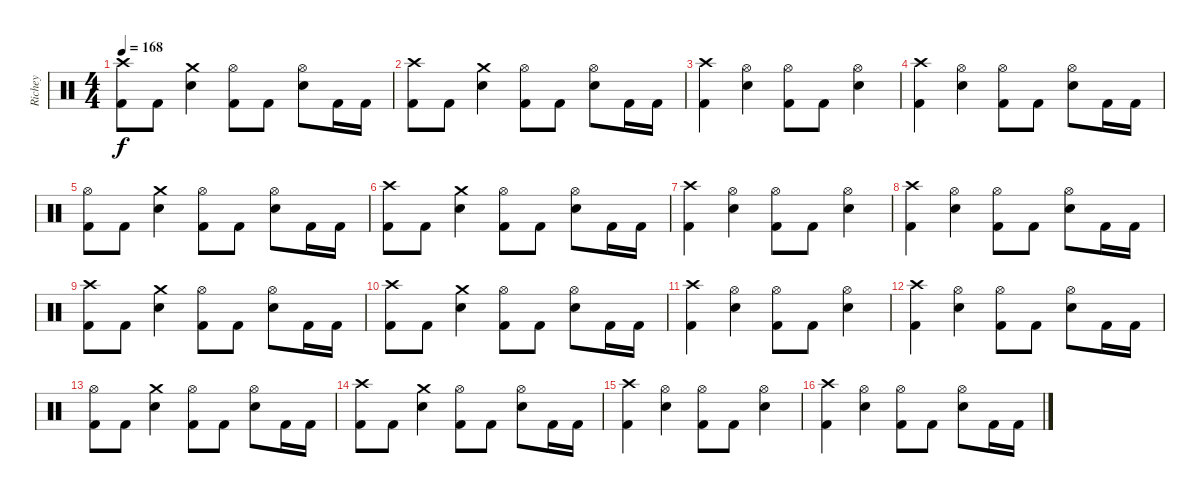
\track ("Richey" "Richey") {instrument percussion}
\staff {score}
\articulation defaults
\ts (4 4)
\tempo 168
\clef neutral
\ks c
("Crash high (hit)" "Kick (hit) 2").8{dy f} "Kick (hit) 2".8 ("Crash medium (hit)" "Snare (hit) 2").4 ("Hi-Hat (open)" "Kick (hit) 2").8 "Kick (hit) 2".8 ("Hi-Hat (open)" "Snare (hit) 2").8 "Kick (hit) 2".16 "Kick (hit) 2".16 |
("Crash high (hit)" "Kick (hit) 2").8 "Kick (hit) 2".8 ("Crash medium (hit)" "Snare (hit) 2").4 ("Hi-Hat (open)" "Kick (hit) 2").8 "Kick (hit) 2".8 ("Hi-Hat (open)" "Snare (hit) 2").8 "Kick (hit) 2".16 "Kick (hit) 2".16 |
("Crash high (hit)" "Kick (hit) 2").4 ("Hi-Hat (open)" "Snare (hit) 2").4 ("Hi-Hat (open)" "Kick (hit) 2").8 "Kick (hit) 2".8 ("Hi-Hat (open)" "Snare (hit) 2").4 |
("Crash high (hit)" "Kick (hit) 2").4 ("Hi-Hat (open)" "Snare (hit) 2").4 ("Hi-Hat (open)" "Kick (hit) 2").8 "Kick (hit) 2".8 ("Hi-Hat (open)" "Snare (hit) 2").8 "Kick (hit) 2".16 "Kick (hit) 2".16 |
("Hi-Hat (open)" "Kick (hit) 2").8 "Kick (hit) 2".8 ("Crash medium (hit)" "Snare (hit) 2").4 ("Hi-Hat (open)" "Kick (hit) 2").8 "Kick (hit) 2".8 ("Hi-Hat (open)" "Snare (hit) 2").8 "Kick (hit) 2".16 "Kick (hit) 2".16 |
("Crash high (hit)" "Kick (hit) 2").8 "Kick (hit) 2".8 ("Crash medium (hit)" "Snare (hit) 2").4 ("Hi-Hat (open)" "Kick (hit) 2").8 "Kick (hit) 2".8 ("Hi-Hat (open)" "Snare (hit) 2").8 "Kick (hit) 2".16 "Kick (hit) 2".16 |
("Crash high (hit)" "Kick (hit) 2").4 ("Hi-Hat (open)" "Snare (hit) 2").4 ("Hi-Hat (open)" "Kick (hit) 2").8 "Kick (hit) 2".8 ("Hi-Hat (open)" "Snare (hit) 2").4 |
("Crash high (hit)" "Kick (hit) 2").4 ("Hi-Hat (open)" "Snare (hit) 2").4 ("Hi-Hat (open)" "Kick (hit) 2").8 "Kick (hit) 2".8 ("Hi-Hat (open)" "Snare (hit) 2").8 "Kick (hit) 2".16 "Kick (hit) 2".16 |
("Crash high (hit)" "Kick (hit) 2").8 "Kick (hit) 2".8 ("Crash medium (hit)" "Snare (hit) 2").4 ("Hi-Hat (open)" "Kick (hit) 2").8 "Kick (hit) 2".8 ("Hi-Hat (open)" "Snare (hit) 2").8 "Kick (hit) 2".16 "Kick (hit) 2".16 |
("Crash high (hit)" "Kick (hit) 2").8 "Kick (hit) 2".8 ("Crash medium (hit)" "Snare (hit) 2").4 ("Hi-Hat (open)" "Kick (hit) 2").8 "Kick (hit) 2".8 ("Hi-Hat (open)" "Snare (hit) 2").8 "Kick (hit) 2".16 "Kick (hit) 2".16 |
("Crash high (hit)" "Kick (hit) 2").4 ("Hi-Hat (open)" "Snare (hit) 2").4 ("Hi-Hat (open)" "Kick (hit) 2").8 "Kick (hit) 2".8 ("Hi-Hat (open)" "Snare (hit) 2").4 |
("Crash high (hit)" "Kick (hit) 2").4 ("Hi-Hat (open)" "Snare (hit) 2").4 ("Hi-Hat (open)" "Kick (hit) 2").8 "Kick (hit) 2".8 ("Hi-Hat (open)" "Snare (hit) 2").8 "Kick (hit) 2".16 "Kick (hit) 2".16 |
("Hi-Hat (open)" "Kick (hit) 2").8 "Kick (hit) 2".8 ("Crash medium (hit)" "Snare (hit) 2").4 ("Hi-Hat (open)" "Kick (hit) 2").8 "Kick (hit) 2".8 ("Hi-Hat (open)" "Snare (hit) 2").8 "Kick (hit) 2".16 "Kick (hit) 2".16 |
("Crash high (hit)" "Kick (hit) 2").8 "Kick (hit) 2".8 ("Crash medium (hit)" "Snare (hit) 2").4 ("Hi-Hat (open)" "Kick (hit) 2").8 "Kick (hit) 2".8 ("Hi-Hat (open)" "Snare (hit) 2").8 "Kick (hit) 2".16 "Kick (hit) 2".16 |
("Crash high (hit)" "Kick (hit) 2").4 ("Hi-Hat (open)" "Snare (hit) 2").4 ("Hi-Hat (open)" "Kick (hit) 2").8 "Kick (hit) 2".8 ("Hi-Hat (open)" "Snare (hit) 2").4 |
("Crash high (hit)" "Kick (hit) 2").4 ("Hi-Hat (open)" "Snare (hit) 2").4 ("Hi-Hat (open)" "Kick (hit) 2").8 "Kick (hit) 2".8 ("Hi-Hat (open)" "Snare (hit) 2").8 "Kick (hit) 2".16 "Kick (hit) 2".16
